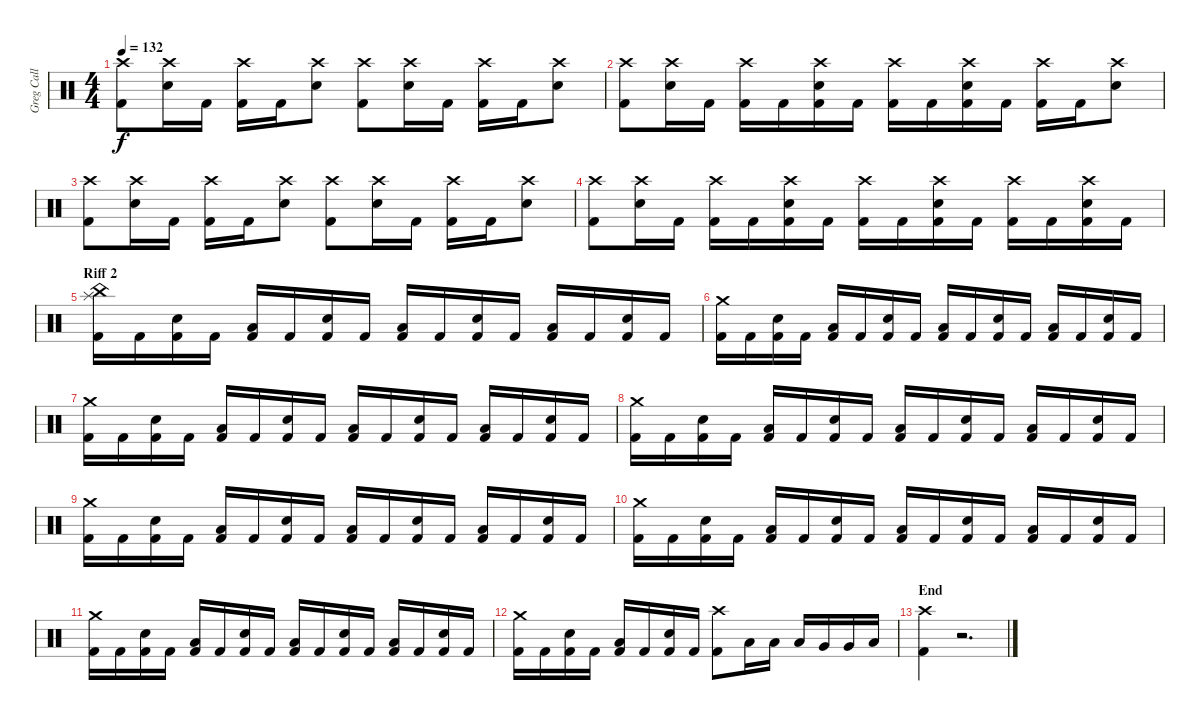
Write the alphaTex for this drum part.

\track ("Greg Call >>Drums" "Greg Call ") {instrument percussion}
\staff {score}
\articulation defaults
\ts (4 4)
\tempo 132
\clef neutral
\ks c
("Crash high (hit)" "Kick (hit) 2").8{dy f} ("Crash high (hit)" "Snare (hit) 2").16 "Kick (hit) 2".16 ("Crash high (hit)" "Kick (hit) 2").16 "Kick (hit) 2".16 ("Crash high (hit)" "Snare (hit) 2").8 ("Crash high (hit)" "Kick (hit) 2").8 ("Crash high (hit)" "Snare (hit) 2").16 "Kick (hit) 2".16 ("Crash high (hit)" "Kick (hit) 2").16 "Kick (hit) 2".16 ("Crash high (hit)" "Snare (hit) 2").8 |
("Crash high (hit)" "Kick (hit) 2").8 ("Crash high (hit)" "Snare (hit) 2").16 "Kick (hit) 2".16 ("Crash high (hit)" "Kick (hit) 2").16 "Kick (hit) 2".16 ("Crash high (hit)" "Snare (hit) 2" "Kick (hit) 2").16 "Kick (hit) 2".16 ("Crash high (hit)" "Kick (hit) 2").16 "Kick (hit) 2".16 ("Crash high (hit)" "Snare (hit) 2" "Kick (hit) 2").16 "Kick (hit) 2".16 ("Crash high (hit)" "Kick (hit) 2").16 "Kick (hit) 2".16 ("Crash high (hit)" "Snare (hit) 2").8 |
("Crash high (hit)" "Kick (hit) 2").8 ("Crash high (hit)" "Snare (hit) 2").16 "Kick (hit) 2".16 ("Crash high (hit)" "Kick (hit) 2").16 "Kick (hit) 2".16 ("Crash high (hit)" "Snare (hit) 2").8 ("Crash high (hit)" "Kick (hit) 2").8 ("Crash high (hit)" "Snare (hit) 2").16 "Kick (hit) 2".16 ("Crash high (hit)" "Kick (hit) 2").16 "Kick (hit) 2".16 ("Crash high (hit)" "Snare (hit) 2").8 |
("Crash high (hit)" "Kick (hit) 2").8 ("Crash high (hit)" "Snare (hit) 2").16 "Kick (hit) 2".16 ("Crash high (hit)" "Kick (hit) 2").16 "Kick (hit) 2".16 ("Crash high (hit)" "Snare (hit) 2" "Kick (hit) 2").16 "Kick (hit) 2".16 ("Crash high (hit)" "Kick (hit) 2").16 "Kick (hit) 2".16 ("Crash high (hit)" "Snare (hit) 2" "Kick (hit) 2").16 "Kick (hit) 2".16 ("Crash high (hit)" "Kick (hit) 2").16 "Kick (hit) 2".16 ("Crash high (hit)" "Snare (hit) 2" "Kick (hit) 2").16 "Kick (hit) 2".16 |
\section ("" "Riff 2")
("Splash (hit)" "China (hit)" "Kick (hit) 2").16 "Kick (hit) 2".16 ("Snare (hit) 2" "Kick (hit) 2").16 "Kick (hit) 2".16 ("Low Floor Tom (hit)" "Kick (hit) 2").16 "Kick (hit) 2".16 ("Snare (hit) 2" "Kick (hit) 2").16 "Kick (hit) 2".16 ("Low Floor Tom (hit)" "Kick (hit) 2").16 "Kick (hit) 2".16 ("Snare (hit) 2" "Kick (hit) 2").16 "Kick (hit) 2".16 ("Low Floor Tom (hit)" "Kick (hit) 2").16 "Kick (hit) 2".16 ("Snare (hit) 2" "Kick (hit) 2").16 "Kick (hit) 2".16 |
("Crash medium (hit)" "Kick (hit) 2").16 "Kick (hit) 2".16 ("Snare (hit) 2" "Kick (hit) 2").16 "Kick (hit) 2".16 ("Low Floor Tom (hit)" "Kick (hit) 2").16 "Kick (hit) 2".16 ("Snare (hit) 2" "Kick (hit) 2").16 "Kick (hit) 2".16 ("Low Floor Tom (hit)" "Kick (hit) 2").16 "Kick (hit) 2".16 ("Snare (hit) 2" "Kick (hit) 2").16 "Kick (hit) 2".16 ("Low Floor Tom (hit)" "Kick (hit) 2").16 "Kick (hit) 2".16 ("Snare (hit) 2" "Kick (hit) 2").16 "Kick (hit) 2".16 |
("Crash medium (hit)" "Kick (hit) 2").16 "Kick (hit) 2".16 ("Snare (hit) 2" "Kick (hit) 2").16 "Kick (hit) 2".16 ("Low Floor Tom (hit)" "Kick (hit) 2").16 "Kick (hit) 2".16 ("Snare (hit) 2" "Kick (hit) 2").16 "Kick (hit) 2".16 ("Low Floor Tom (hit)" "Kick (hit) 2").16 "Kick (hit) 2".16 ("Snare (hit) 2" "Kick (hit) 2").16 "Kick (hit) 2".16 ("Low Floor Tom (hit)" "Kick (hit) 2").16 "Kick (hit) 2".16 ("Snare (hit) 2" "Kick (hit) 2").16 "Kick (hit) 2".16 |
("Crash medium (hit)" "Kick (hit) 2").16 "Kick (hit) 2".16 ("Snare (hit) 2" "Kick (hit) 2").16 "Kick (hit) 2".16 ("Low Floor Tom (hit)" "Kick (hit) 2").16 "Kick (hit) 2".16 ("Snare (hit) 2" "Kick (hit) 2").16 "Kick (hit) 2".16 ("Low Floor Tom (hit)" "Kick (hit) 2").16 "Kick (hit) 2".16 ("Snare (hit) 2" "Kick (hit) 2").16 "Kick (hit) 2".16 ("Low Floor Tom (hit)" "Kick (hit) 2").16 "Kick (hit) 2".16 ("Snare (hit) 2" "Kick (hit) 2").16 "Kick (hit) 2".16 |
("Crash medium (hit)" "Kick (hit) 2").16 "Kick (hit) 2".16 ("Snare (hit) 2" "Kick (hit) 2").16 "Kick (hit) 2".16 ("Low Floor Tom (hit)" "Kick (hit) 2").16 "Kick (hit) 2".16 ("Snare (hit) 2" "Kick (hit) 2").16 "Kick (hit) 2".16 ("Low Floor Tom (hit)" "Kick (hit) 2").16 "Kick (hit) 2".16 ("Snare (hit) 2" "Kick (hit) 2").16 "Kick (hit) 2".16 ("Low Floor Tom (hit)" "Kick (hit) 2").16 "Kick (hit) 2".16 ("Snare (hit) 2" "Kick (hit) 2").16 "Kick (hit) 2".16 |
("Crash medium (hit)" "Kick (hit) 2").16 "Kick (hit) 2".16 ("Snare (hit) 2" "Kick (hit) 2").16 "Kick (hit) 2".16 ("Low Floor Tom (hit)" "Kick (hit) 2").16 "Kick (hit) 2".16 ("Snare (hit) 2" "Kick (hit) 2").16 "Kick (hit) 2".16 ("Low Floor Tom (hit)" "Kick (hit) 2").16 "Kick (hit) 2".16 ("Snare (hit) 2" "Kick (hit) 2").16 "Kick (hit) 2".16 ("Low Floor Tom (hit)" "Kick (hit) 2").16 "Kick (hit) 2".16 ("Snare (hit) 2" "Kick (hit) 2").16 "Kick (hit) 2".16 |
("Crash medium (hit)" "Kick (hit) 2").16 "Kick (hit) 2".16 ("Snare (hit) 2" "Kick (hit) 2").16 "Kick (hit) 2".16 ("Low Floor Tom (hit)" "Kick (hit) 2").16 "Kick (hit) 2".16 ("Snare (hit) 2" "Kick (hit) 2").16 "Kick (hit) 2".16 ("Low Floor Tom (hit)" "Kick (hit) 2").16 "Kick (hit) 2".16 ("Snare (hit) 2" "Kick (hit) 2").16 "Kick (hit) 2".16 ("Low Floor Tom (hit)" "Kick (hit) 2").16 "Kick (hit) 2".16 ("Snare (hit) 2" "Kick (hit) 2").16 "Kick (hit) 2".16 |
("Crash medium (hit)" "Kick (hit) 2").16 "Kick (hit) 2".16 ("Snare (hit) 2" "Kick (hit) 2").16 "Kick (hit) 2".16 ("Low Floor Tom (hit)" "Kick (hit) 2").16 "Kick (hit) 2".16 ("Snare (hit) 2" "Kick (hit) 2").16 "Kick (hit) 2".16 ("Crash high (hit)" "Kick (hit) 2").8 "Low Tom (hit)".16 "Low Tom (hit)".16 "Low Tom (hit)".16 "Very Low Tom (hit)".16 "Very Low Tom (hit)".16 "Low Floor Tom (hit)".16 |
\section ("" "End")
("Crash high (hit)" "Kick (hit) 2").4 r.2{d volume 0}
